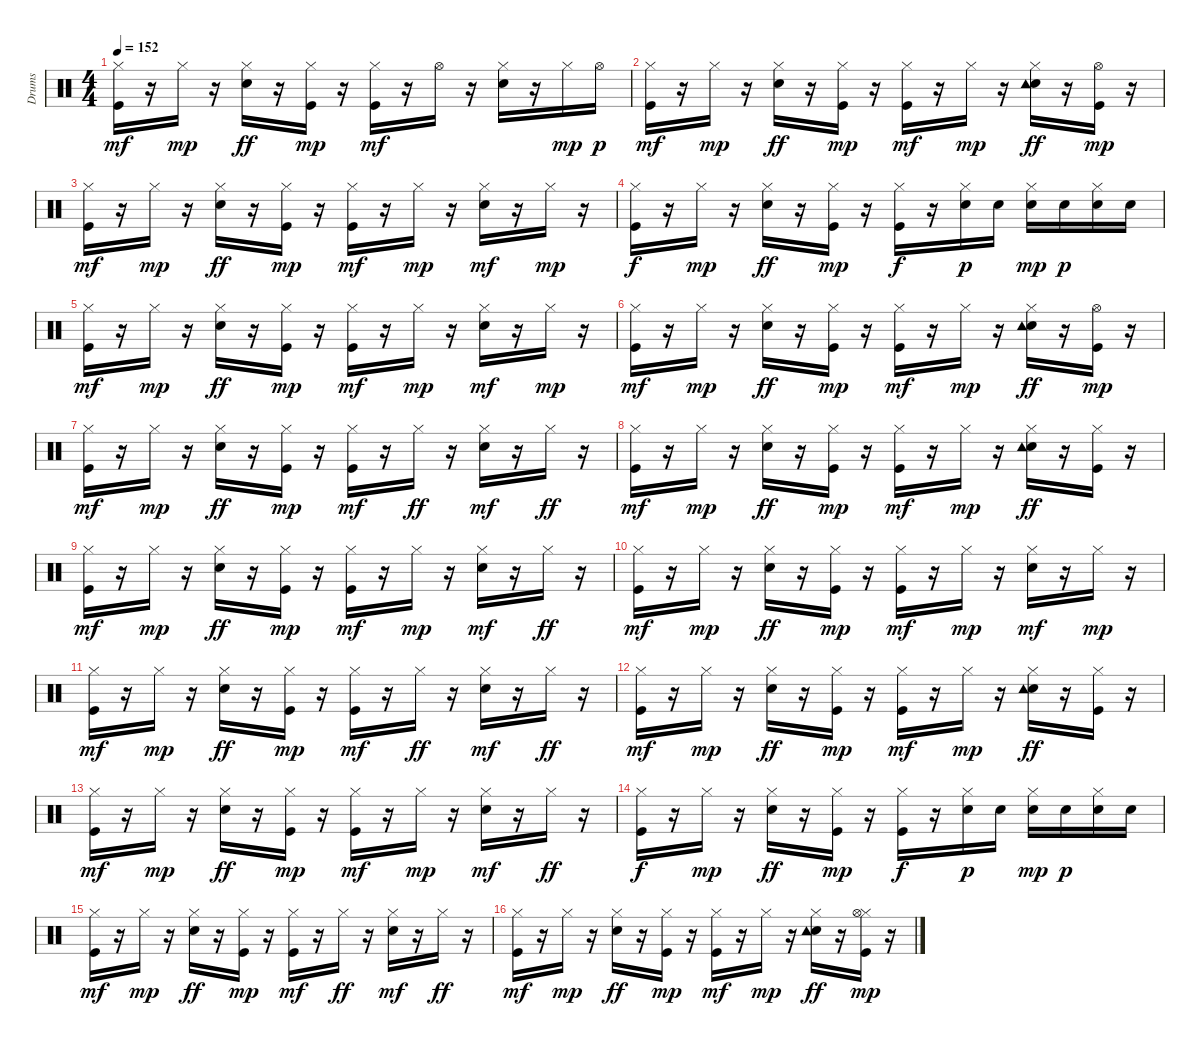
\track ("Drums   " "Drums   ") {instrument percussion}
\staff {score}
\articulation defaults
\ts (4 4)
\tempo 152
\clef neutral
\ks c
("Kick (hit)" "Hi-Hat (closed)").16{dy mf} r.16 "Hi-Hat (closed)".16{dy mp} r.16 ("Snare (hit) 2" "Hi-Hat (closed)").16{dy ff} r.16 ("Kick (hit)" "Hi-Hat (closed)").16{dy mp} r.16 ("Kick (hit)" "Hi-Hat (closed)").16{dy mf} r.16 "Hi-Hat (open)".16 r.16 ("Snare (hit) 2" "Hi-Hat (closed)").16 r.16 "Hi-Hat (closed)".16{dy mp} "Hi-Hat (open)".16{dy p} |
("Kick (hit)" "Hi-Hat (closed)").16{dy mf} r.16 "Hi-Hat (closed)".16{dy mp} r.16 ("Snare (hit) 2" "Hi-Hat (closed)").16{dy ff} r.16 ("Kick (hit)" "Hi-Hat (closed)").16{dy mp} r.16 ("Kick (hit)" "Hi-Hat (closed)").16{dy mf} r.16 "Hi-Hat (closed)".16{dy mp} r.16 ("Snare (hit) 2" "Hi-Hat (closed)" "Tambourine (hit)").16{dy ff} r.16 ("Kick (hit)" "Hi-Hat (open)").16{dy mp} r.16 |
("Kick (hit)" "Hi-Hat (closed)").16{dy mf} r.16 "Hi-Hat (closed)".16{dy mp} r.16 ("Snare (hit) 2" "Hi-Hat (closed)").16{dy ff} r.16 ("Kick (hit)" "Hi-Hat (closed)").16{dy mp} r.16 ("Kick (hit)" "Hi-Hat (closed)").16{dy mf} r.16 "Hi-Hat (closed)".16{dy mp} r.16 ("Snare (hit) 2" "Hi-Hat (closed)").16{dy mf} r.16 "Hi-Hat (closed)".16{dy mp} r.16 |
("Kick (hit)" "Hi-Hat (closed)").16{dy f} r.16 "Hi-Hat (closed)".16{dy mp} r.16 ("Snare (hit) 2" "Hi-Hat (closed)").16{dy ff} r.16 ("Kick (hit)" "Hi-Hat (closed)").16{dy mp} r.16 ("Kick (hit)" "Hi-Hat (closed)").16{dy f} r.16 ("Snare (hit) 2" "Hi-Hat (closed)").16{dy p} "Snare (hit) 2".16 ("Snare (hit) 2" "Hi-Hat (closed)").16{dy mp} "Snare (hit) 2".16{dy p} ("Snare (hit) 2" "Hi-Hat (closed)").16 "Snare (hit) 2".16 |
("Kick (hit)" "Hi-Hat (closed)").16{dy mf} r.16 "Hi-Hat (closed)".16{dy mp} r.16 ("Snare (hit) 2" "Hi-Hat (closed)").16{dy ff} r.16 ("Kick (hit)" "Hi-Hat (closed)").16{dy mp} r.16 ("Kick (hit)" "Hi-Hat (closed)").16{dy mf} r.16 "Hi-Hat (closed)".16{dy mp} r.16 ("Snare (hit) 2" "Hi-Hat (closed)").16{dy mf} r.16 "Hi-Hat (closed)".16{dy mp} r.16 |
("Kick (hit)" "Hi-Hat (closed)").16{dy mf} r.16 "Hi-Hat (closed)".16{dy mp} r.16 ("Snare (hit) 2" "Hi-Hat (closed)").16{dy ff} r.16 ("Kick (hit)" "Hi-Hat (closed)").16{dy mp} r.16 ("Kick (hit)" "Hi-Hat (closed)").16{dy mf} r.16 "Hi-Hat (closed)".16{dy mp} r.16 ("Snare (hit) 2" "Hi-Hat (closed)" "Tambourine (hit)").16{dy ff} r.16 ("Kick (hit)" "Hi-Hat (open)").16{dy mp} r.16 |
("Kick (hit)" "Hi-Hat (closed)").16{dy mf} r.16 "Hi-Hat (closed)".16{dy mp} r.16 ("Snare (hit) 2" "Hi-Hat (closed)").16{dy ff} r.16 ("Kick (hit)" "Hi-Hat (closed)").16{dy mp} r.16 ("Kick (hit)" "Hi-Hat (closed)").16{dy mf} r.16 "Hi-Hat (closed)".16{dy ff} r.16 ("Snare (hit) 2" "Hi-Hat (closed)").16{dy mf} r.16 "Hi-Hat (closed)".16{dy ff} r.16 |
("Kick (hit)" "Hi-Hat (closed)").16{dy mf} r.16 "Hi-Hat (closed)".16{dy mp} r.16 ("Snare (hit) 2" "Hi-Hat (closed)").16{dy ff} r.16 ("Kick (hit)" "Hi-Hat (closed)").16{dy mp} r.16 ("Kick (hit)" "Hi-Hat (closed)").16{dy mf} r.16 "Hi-Hat (closed)".16{dy mp} r.16 ("Snare (hit) 2" "Hi-Hat (closed)" "Tambourine (hit)").16{dy ff} r.16 ("Kick (hit)" "Hi-Hat (closed)").16 r.16 |
("Kick (hit)" "Hi-Hat (closed)").16{dy mf} r.16 "Hi-Hat (closed)".16{dy mp} r.16 ("Snare (hit) 2" "Hi-Hat (closed)").16{dy ff} r.16 ("Kick (hit)" "Hi-Hat (closed)").16{dy mp} r.16 ("Kick (hit)" "Hi-Hat (closed)").16{dy mf} r.16 "Hi-Hat (closed)".16{dy mp} r.16 ("Snare (hit) 2" "Hi-Hat (closed)").16{dy mf} r.16 "Hi-Hat (closed)".16{dy ff} r.16 |
("Kick (hit)" "Hi-Hat (closed)").16{dy mf} r.16 "Hi-Hat (closed)".16{dy mp} r.16 ("Snare (hit) 2" "Hi-Hat (closed)").16{dy ff} r.16 ("Kick (hit)" "Hi-Hat (closed)").16{dy mp} r.16 ("Kick (hit)" "Hi-Hat (closed)").16{dy mf} r.16 "Hi-Hat (closed)".16{dy mp} r.16 ("Snare (hit) 2" "Hi-Hat (closed)").16{dy mf} r.16 "Hi-Hat (closed)".16{dy mp} r.16 |
("Kick (hit)" "Hi-Hat (closed)").16{dy mf} r.16 "Hi-Hat (closed)".16{dy mp} r.16 ("Snare (hit) 2" "Hi-Hat (closed)").16{dy ff} r.16 ("Kick (hit)" "Hi-Hat (closed)").16{dy mp} r.16 ("Kick (hit)" "Hi-Hat (closed)").16{dy mf} r.16 "Hi-Hat (closed)".16{dy ff} r.16 ("Snare (hit) 2" "Hi-Hat (closed)").16{dy mf} r.16 "Hi-Hat (closed)".16{dy ff} r.16 |
("Kick (hit)" "Hi-Hat (closed)").16{dy mf} r.16 "Hi-Hat (closed)".16{dy mp} r.16 ("Snare (hit) 2" "Hi-Hat (closed)").16{dy ff} r.16 ("Kick (hit)" "Hi-Hat (closed)").16{dy mp} r.16 ("Kick (hit)" "Hi-Hat (closed)").16{dy mf} r.16 "Hi-Hat (closed)".16{dy mp} r.16 ("Snare (hit) 2" "Hi-Hat (closed)" "Tambourine (hit)").16{dy ff} r.16 ("Kick (hit)" "Hi-Hat (closed)").16 r.16 |
("Kick (hit)" "Hi-Hat (closed)").16{dy mf} r.16 "Hi-Hat (closed)".16{dy mp} r.16 ("Snare (hit) 2" "Hi-Hat (closed)").16{dy ff} r.16 ("Kick (hit)" "Hi-Hat (closed)").16{dy mp} r.16 ("Kick (hit)" "Hi-Hat (closed)").16{dy mf} r.16 "Hi-Hat (closed)".16{dy mp} r.16 ("Snare (hit) 2" "Hi-Hat (closed)").16{dy mf} r.16 "Hi-Hat (closed)".16{dy ff} r.16 |
("Kick (hit)" "Hi-Hat (closed)").16{dy f} r.16 "Hi-Hat (closed)".16{dy mp} r.16 ("Snare (hit) 2" "Hi-Hat (closed)").16{dy ff} r.16 ("Kick (hit)" "Hi-Hat (closed)").16{dy mp} r.16 ("Kick (hit)" "Hi-Hat (closed)").16{dy f} r.16 ("Snare (hit) 2" "Hi-Hat (closed)").16{dy p} "Snare (hit) 2".16 ("Snare (hit) 2" "Hi-Hat (closed)").16{dy mp} "Snare (hit) 2".16{dy p} ("Snare (hit) 2" "Hi-Hat (closed)").16 "Snare (hit) 2".16 |
("Kick (hit)" "Hi-Hat (closed)").16{dy mf} r.16 "Hi-Hat (closed)".16{dy mp} r.16 ("Snare (hit) 2" "Hi-Hat (closed)").16{dy ff} r.16 ("Kick (hit)" "Hi-Hat (closed)").16{dy mp} r.16 ("Kick (hit)" "Hi-Hat (closed)").16{dy mf} r.16 "Hi-Hat (closed)".16{dy ff} r.16 ("Snare (hit) 2" "Hi-Hat (closed)").16{dy mf} r.16 "Hi-Hat (closed)".16{dy ff} r.16 |
("Kick (hit)" "Hi-Hat (closed)").16{dy mf} r.16 "Hi-Hat (closed)".16{dy mp} r.16 ("Snare (hit) 2" "Hi-Hat (closed)").16{dy ff} r.16 ("Kick (hit)" "Hi-Hat (closed)").16{dy mp} r.16 ("Kick (hit)" "Hi-Hat (closed)").16{dy mf} r.16 "Hi-Hat (closed)".16{dy mp} r.16 ("Snare (hit) 2" "Hi-Hat (closed)" "Tambourine (hit)").16{dy ff} r.16 ("Kick (hit)" "Hi-Hat (closed)" "Hi-Hat (open)").16{dy mp} r.16
